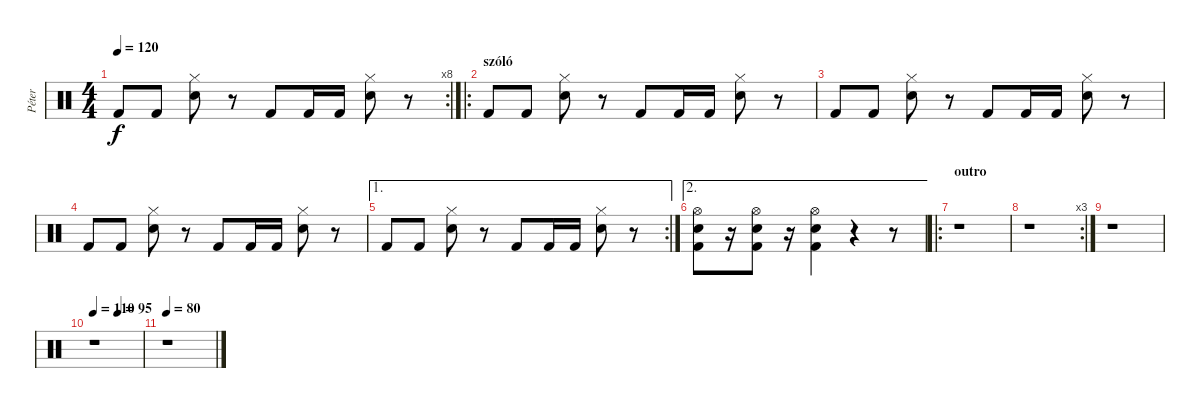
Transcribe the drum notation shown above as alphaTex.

\track ("Péter" "Péter") {instrument percussion}
\staff {score}
\articulation defaults
\rc 8
\ts (4 4)
\tempo 120
\clef neutral
\ks c "Kick (hit) 2".8{dy f} "Kick (hit) 2".8
("Electric Snare (hit)" "Hi-Hat (closed)").8 r.8 "Kick (hit) 2".8 "Kick (hit) 2".16 "Kick (hit) 2".16 ("Electric Snare (hit)" "Hi-Hat (closed)").8 r.8 |
\ro
\section ("" "szóló")
"Kick (hit) 2".8 "Kick (hit) 2".8 ("Electric Snare (hit)" "Hi-Hat (closed)").8 r.8 "Kick (hit) 2".8 "Kick (hit) 2".16 "Kick (hit) 2".16 ("Electric Snare (hit)" "Hi-Hat (closed)").8 r.8 |
"Kick (hit) 2".8 "Kick (hit) 2".8 ("Electric Snare (hit)" "Hi-Hat (closed)").8 r.8 "Kick (hit) 2".8 "Kick (hit) 2".16 "Kick (hit) 2".16 ("Electric Snare (hit)" "Hi-Hat (closed)").8 r.8 |
"Kick (hit) 2".8 "Kick (hit) 2".8 ("Electric Snare (hit)" "Hi-Hat (closed)").8 r.8 "Kick (hit) 2".8 "Kick (hit) 2".16 "Kick (hit) 2".16 ("Electric Snare (hit)" "Hi-Hat (closed)").8 r.8 |
\ae 1
\rc 2 "Kick (hit) 2".8 "Kick (hit) 2".8
("Electric Snare (hit)" "Hi-Hat (closed)").8 r.8 "Kick (hit) 2".8 "Kick (hit) 2".16 "Kick (hit) 2".16 ("Electric Snare (hit)" "Hi-Hat (closed)").8 r.8 |
\ae 2
("Electric Snare (hit)" "Kick (hit) 2" "Hi-Hat (open)").8 r.16 ("Electric Snare (hit)" "Kick (hit) 2" "Hi-Hat (open)").8 r.16 ("Electric Snare (hit)" "Kick (hit) 2" "Hi-Hat (open)").4 r.4 r.8 |
\ro
\section ("" "outro")
r.1 |
\rc 3
r.1 |
r.1 |
\tempo 110
\tempo (95 0.5)
r.1 |
\tempo 80
r.1
